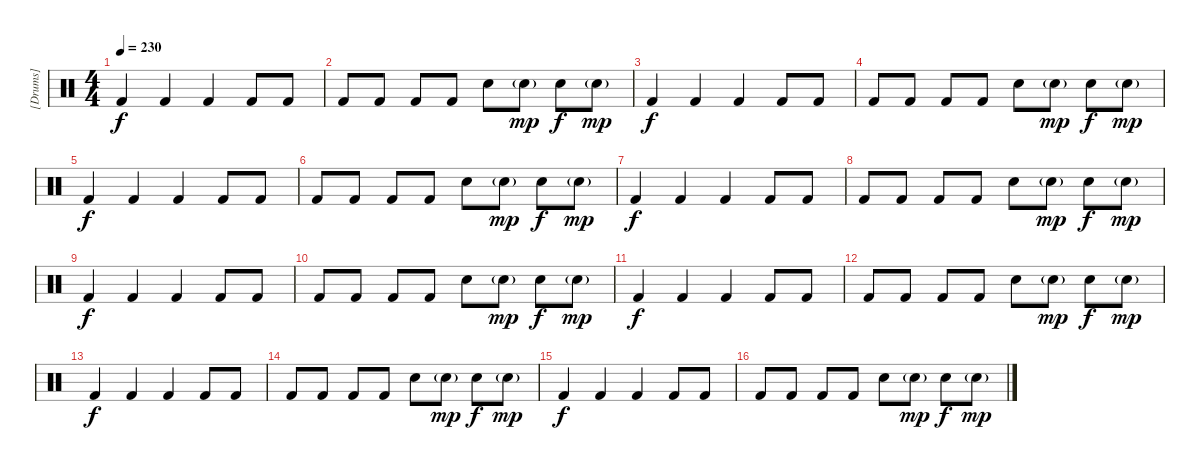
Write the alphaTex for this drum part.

\track ("[Drums]" "[Drums]") {instrument percussion}
\staff {score}
\articulation defaults
\ts (4 4)
\tempo 230
\clef neutral
\ks c "Kick (hit) 2".4{dy f} "Kick (hit) 2".4 "Kick (hit) 2".4 "Kick (hit) 2".8 "Kick (hit) 2".8
|
"Kick (hit) 2".8 "Kick (hit) 2".8 "Kick (hit) 2".8 "Kick (hit) 2".8 "Electric Snare (hit)".8 "Electric Snare (hit)"{g}.8{dy mp} "Electric Snare (hit)".8{dy f} "Electric Snare (hit)"{g}.8{dy mp} |
"Kick (hit) 2".4{dy f} "Kick (hit) 2".4 "Kick (hit) 2".4 "Kick (hit) 2".8 "Kick (hit) 2".8 |
"Kick (hit) 2".8 "Kick (hit) 2".8 "Kick (hit) 2".8 "Kick (hit) 2".8 "Electric Snare (hit)".8 "Electric Snare (hit)"{g}.8{dy mp} "Electric Snare (hit)".8{dy f} "Electric Snare (hit)"{g}.8{dy mp} |
"Kick (hit) 2".4{dy f} "Kick (hit) 2".4 "Kick (hit) 2".4 "Kick (hit) 2".8 "Kick (hit) 2".8 |
"Kick (hit) 2".8 "Kick (hit) 2".8 "Kick (hit) 2".8 "Kick (hit) 2".8 "Electric Snare (hit)".8 "Electric Snare (hit)"{g}.8{dy mp} "Electric Snare (hit)".8{dy f} "Electric Snare (hit)"{g}.8{dy mp} |
"Kick (hit) 2".4{dy f} "Kick (hit) 2".4 "Kick (hit) 2".4 "Kick (hit) 2".8 "Kick (hit) 2".8 |
"Kick (hit) 2".8 "Kick (hit) 2".8 "Kick (hit) 2".8 "Kick (hit) 2".8 "Electric Snare (hit)".8 "Electric Snare (hit)"{g}.8{dy mp} "Electric Snare (hit)".8{dy f} "Electric Snare (hit)"{g}.8{dy mp} |
"Kick (hit) 2".4{dy f} "Kick (hit) 2".4 "Kick (hit) 2".4 "Kick (hit) 2".8 "Kick (hit) 2".8 |
"Kick (hit) 2".8 "Kick (hit) 2".8 "Kick (hit) 2".8 "Kick (hit) 2".8 "Electric Snare (hit)".8 "Electric Snare (hit)"{g}.8{dy mp} "Electric Snare (hit)".8{dy f} "Electric Snare (hit)"{g}.8{dy mp} |
"Kick (hit) 2".4{dy f} "Kick (hit) 2".4 "Kick (hit) 2".4 "Kick (hit) 2".8 "Kick (hit) 2".8 |
"Kick (hit) 2".8 "Kick (hit) 2".8 "Kick (hit) 2".8 "Kick (hit) 2".8 "Electric Snare (hit)".8 "Electric Snare (hit)"{g}.8{dy mp} "Electric Snare (hit)".8{dy f} "Electric Snare (hit)"{g}.8{dy mp} |
"Kick (hit) 2".4{dy f} "Kick (hit) 2".4 "Kick (hit) 2".4 "Kick (hit) 2".8 "Kick (hit) 2".8 |
"Kick (hit) 2".8 "Kick (hit) 2".8 "Kick (hit) 2".8 "Kick (hit) 2".8 "Electric Snare (hit)".8 "Electric Snare (hit)"{g}.8{dy mp} "Electric Snare (hit)".8{dy f} "Electric Snare (hit)"{g}.8{dy mp} |
"Kick (hit) 2".4{dy f} "Kick (hit) 2".4 "Kick (hit) 2".4 "Kick (hit) 2".8 "Kick (hit) 2".8 |
"Kick (hit) 2".8 "Kick (hit) 2".8 "Kick (hit) 2".8 "Kick (hit) 2".8 "Electric Snare (hit)".8 "Electric Snare (hit)"{g}.8{dy mp} "Electric Snare (hit)".8{dy f} "Electric Snare (hit)"{g}.8{dy mp}
